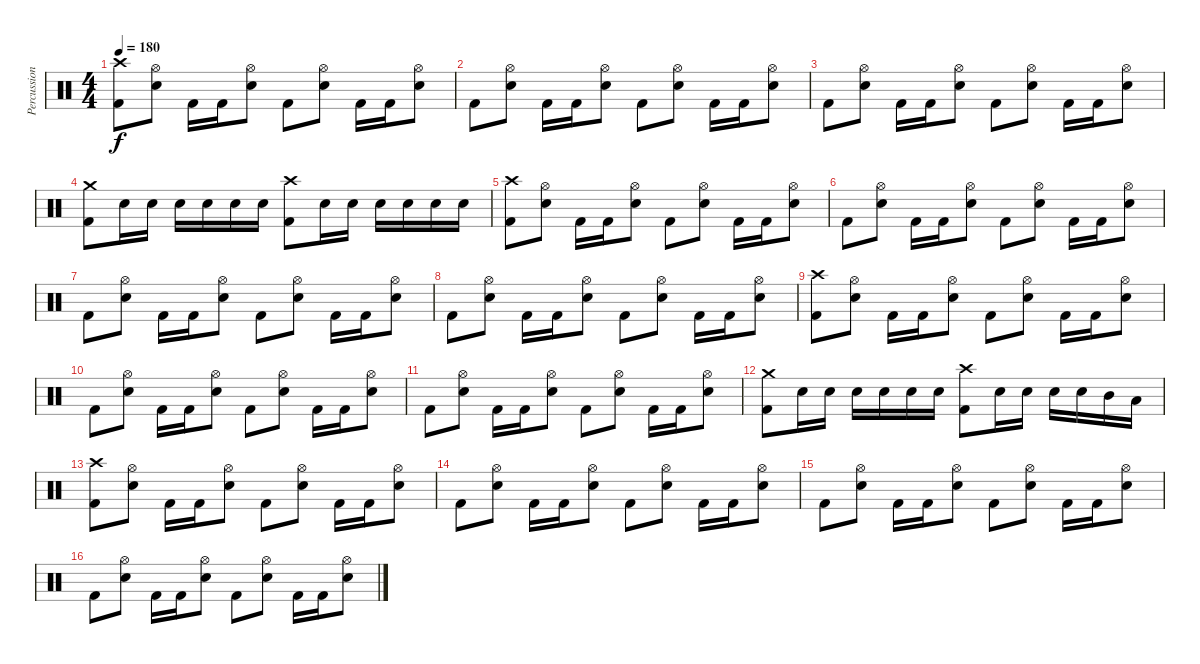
\track ("Percussion" "Percussion") {instrument percussion}
\staff {score}
\articulation defaults
\ts (4 4)
\tempo 180
\clef neutral
\ks c
("Crash high (hit)" "Kick (hit) 2").8{dy f} ("Hi-Hat (open)" "Electric Snare (hit)").8 "Kick (hit) 2".16 "Kick (hit) 2".16 ("Hi-Hat (open)" "Electric Snare (hit)").8 "Kick (hit) 2".8 ("Hi-Hat (open)" "Electric Snare (hit)").8 "Kick (hit) 2".16 "Kick (hit) 2".16 ("Hi-Hat (open)" "Electric Snare (hit)").8 |
"Kick (hit) 2".8 ("Hi-Hat (open)" "Electric Snare (hit)").8 "Kick (hit) 2".16 "Kick (hit) 2".16 ("Hi-Hat (open)" "Electric Snare (hit)").8 "Kick (hit) 2".8 ("Hi-Hat (open)" "Electric Snare (hit)").8 "Kick (hit) 2".16 "Kick (hit) 2".16 ("Hi-Hat (open)" "Electric Snare (hit)").8 |
"Kick (hit) 2".8 ("Hi-Hat (open)" "Electric Snare (hit)").8 "Kick (hit) 2".16 "Kick (hit) 2".16 ("Hi-Hat (open)" "Electric Snare (hit)").8 "Kick (hit) 2".8 ("Hi-Hat (open)" "Electric Snare (hit)").8 "Kick (hit) 2".16 "Kick (hit) 2".16 ("Hi-Hat (open)" "Electric Snare (hit)").8 |
("Crash medium (hit)" "Kick (hit) 2").8 "Electric Snare (hit)".16 "Electric Snare (hit)".16 "Electric Snare (hit)".16 "Electric Snare (hit)".16 "Electric Snare (hit)".16 "Electric Snare (hit)".16 ("Crash high (hit)" "Kick (hit) 2").8 "Electric Snare (hit)".16 "Electric Snare (hit)".16 "Electric Snare (hit)".16 "Electric Snare (hit)".16 "Electric Snare (hit)".16 "Electric Snare (hit)".16 |
("Crash high (hit)" "Kick (hit) 2").8 ("Hi-Hat (open)" "Electric Snare (hit)").8 "Kick (hit) 2".16 "Kick (hit) 2".16 ("Hi-Hat (open)" "Electric Snare (hit)").8 "Kick (hit) 2".8 ("Hi-Hat (open)" "Electric Snare (hit)").8 "Kick (hit) 2".16 "Kick (hit) 2".16 ("Hi-Hat (open)" "Electric Snare (hit)").8 |
"Kick (hit) 2".8 ("Hi-Hat (open)" "Electric Snare (hit)").8 "Kick (hit) 2".16 "Kick (hit) 2".16 ("Hi-Hat (open)" "Electric Snare (hit)").8 "Kick (hit) 2".8 ("Hi-Hat (open)" "Electric Snare (hit)").8 "Kick (hit) 2".16 "Kick (hit) 2".16 ("Hi-Hat (open)" "Electric Snare (hit)").8 |
"Kick (hit) 2".8 ("Hi-Hat (open)" "Electric Snare (hit)").8 "Kick (hit) 2".16 "Kick (hit) 2".16 ("Hi-Hat (open)" "Electric Snare (hit)").8 "Kick (hit) 2".8 ("Hi-Hat (open)" "Electric Snare (hit)").8 "Kick (hit) 2".16 "Kick (hit) 2".16 ("Hi-Hat (open)" "Electric Snare (hit)").8 |
"Kick (hit) 2".8 ("Hi-Hat (open)" "Electric Snare (hit)").8 "Kick (hit) 2".16 "Kick (hit) 2".16 ("Hi-Hat (open)" "Electric Snare (hit)").8 "Kick (hit) 2".8 ("Hi-Hat (open)" "Electric Snare (hit)").8 "Kick (hit) 2".16 "Kick (hit) 2".16 ("Hi-Hat (open)" "Electric Snare (hit)").8 |
("Crash high (hit)" "Kick (hit) 2").8 ("Hi-Hat (open)" "Electric Snare (hit)").8 "Kick (hit) 2".16 "Kick (hit) 2".16 ("Hi-Hat (open)" "Electric Snare (hit)").8 "Kick (hit) 2".8 ("Hi-Hat (open)" "Electric Snare (hit)").8 "Kick (hit) 2".16 "Kick (hit) 2".16 ("Hi-Hat (open)" "Electric Snare (hit)").8 |
"Kick (hit) 2".8 ("Hi-Hat (open)" "Electric Snare (hit)").8 "Kick (hit) 2".16 "Kick (hit) 2".16 ("Hi-Hat (open)" "Electric Snare (hit)").8 "Kick (hit) 2".8 ("Hi-Hat (open)" "Electric Snare (hit)").8 "Kick (hit) 2".16 "Kick (hit) 2".16 ("Hi-Hat (open)" "Electric Snare (hit)").8 |
"Kick (hit) 2".8 ("Hi-Hat (open)" "Electric Snare (hit)").8 "Kick (hit) 2".16 "Kick (hit) 2".16 ("Hi-Hat (open)" "Electric Snare (hit)").8 "Kick (hit) 2".8 ("Hi-Hat (open)" "Electric Snare (hit)").8 "Kick (hit) 2".16 "Kick (hit) 2".16 ("Hi-Hat (open)" "Electric Snare (hit)").8 |
("Crash medium (hit)" "Kick (hit) 2").8 "Electric Snare (hit)".16 "Electric Snare (hit)".16 "Electric Snare (hit)".16 "Electric Snare (hit)".16 "Electric Snare (hit)".16 "Electric Snare (hit)".16 ("Crash high (hit)" "Kick (hit) 2").8 "Electric Snare (hit)".16 "Electric Snare (hit)".16 "Electric Snare (hit)".16 "Electric Snare (hit)".16 "Mid Tom (hit)".16 "Low Tom (hit)".16 |
("Crash high (hit)" "Kick (hit) 2").8{volume 10} ("Hi-Hat (open)" "Electric Snare (hit)").8 "Kick (hit) 2".16 "Kick (hit) 2".16 ("Hi-Hat (open)" "Electric Snare (hit)").8 "Kick (hit) 2".8 ("Hi-Hat (open)" "Electric Snare (hit)").8 "Kick (hit) 2".16 "Kick (hit) 2".16 ("Hi-Hat (open)" "Electric Snare (hit)").8 |
"Kick (hit) 2".8 ("Hi-Hat (open)" "Electric Snare (hit)").8 "Kick (hit) 2".16 "Kick (hit) 2".16 ("Hi-Hat (open)" "Electric Snare (hit)").8 "Kick (hit) 2".8 ("Hi-Hat (open)" "Electric Snare (hit)").8 "Kick (hit) 2".16 "Kick (hit) 2".16 ("Hi-Hat (open)" "Electric Snare (hit)").8 |
"Kick (hit) 2".8 ("Hi-Hat (open)" "Electric Snare (hit)").8 "Kick (hit) 2".16 "Kick (hit) 2".16 ("Hi-Hat (open)" "Electric Snare (hit)").8 "Kick (hit) 2".8 ("Hi-Hat (open)" "Electric Snare (hit)").8 "Kick (hit) 2".16 "Kick (hit) 2".16 ("Hi-Hat (open)" "Electric Snare (hit)").8 |
"Kick (hit) 2".8 ("Hi-Hat (open)" "Electric Snare (hit)").8 "Kick (hit) 2".16 "Kick (hit) 2".16 ("Hi-Hat (open)" "Electric Snare (hit)").8 "Kick (hit) 2".8 ("Hi-Hat (open)" "Electric Snare (hit)").8 "Kick (hit) 2".16 "Kick (hit) 2".16 ("Hi-Hat (open)" "Electric Snare (hit)").8
